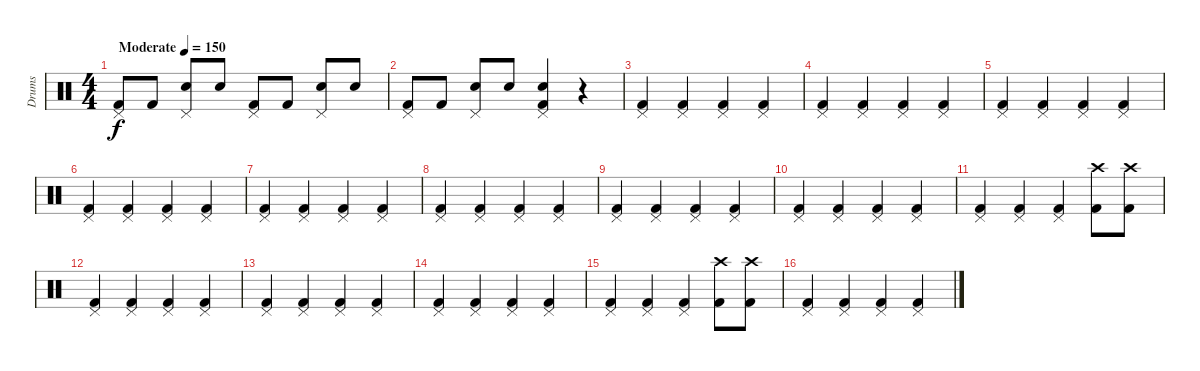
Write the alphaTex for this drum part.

\track ("Drums" "Drums") {instrument percussion}
\staff {score}
\articulation defaults
\ts (4 4)
\tempo (150 "Moderate")
\clef neutral
\ks c
("Pedal Hi-Hat (hit)" "Kick (hit) 2").8{dy f} "Kick (hit) 2".8 ("Pedal Hi-Hat (hit)" "Snare (hit) 2").8 "Snare (hit) 2".8 ("Pedal Hi-Hat (hit)" "Kick (hit) 2").8 "Kick (hit) 2".8 ("Pedal Hi-Hat (hit)" "Snare (hit) 2").8 "Snare (hit) 2".8 |
("Pedal Hi-Hat (hit)" "Kick (hit) 2").8 "Kick (hit) 2".8 ("Pedal Hi-Hat (hit)" "Snare (hit) 2").8 "Snare (hit) 2".8 ("Pedal Hi-Hat (hit)" "Snare (hit) 2" "Kick (hit) 2").4 r.4 |
("Pedal Hi-Hat (hit)" "Kick (hit) 2").4 ("Pedal Hi-Hat (hit)" "Kick (hit) 2").4 ("Pedal Hi-Hat (hit)" "Kick (hit) 2").4 ("Pedal Hi-Hat (hit)" "Kick (hit) 2").4 |
("Pedal Hi-Hat (hit)" "Kick (hit) 2").4 ("Pedal Hi-Hat (hit)" "Kick (hit) 2").4 ("Pedal Hi-Hat (hit)" "Kick (hit) 2").4 ("Pedal Hi-Hat (hit)" "Kick (hit) 2").4 |
("Pedal Hi-Hat (hit)" "Kick (hit) 2").4 ("Pedal Hi-Hat (hit)" "Kick (hit) 2").4 ("Pedal Hi-Hat (hit)" "Kick (hit) 2").4 ("Pedal Hi-Hat (hit)" "Kick (hit) 2").4 |
("Pedal Hi-Hat (hit)" "Kick (hit) 2").4 ("Pedal Hi-Hat (hit)" "Kick (hit) 2").4 ("Pedal Hi-Hat (hit)" "Kick (hit) 2").4 ("Pedal Hi-Hat (hit)" "Kick (hit) 2").4 |
("Pedal Hi-Hat (hit)" "Kick (hit) 2").4 ("Pedal Hi-Hat (hit)" "Kick (hit) 2").4 ("Pedal Hi-Hat (hit)" "Kick (hit) 2").4 ("Pedal Hi-Hat (hit)" "Kick (hit) 2").4 |
("Pedal Hi-Hat (hit)" "Kick (hit) 2").4 ("Pedal Hi-Hat (hit)" "Kick (hit) 2").4 ("Pedal Hi-Hat (hit)" "Kick (hit) 2").4 ("Pedal Hi-Hat (hit)" "Kick (hit) 2").4 |
("Pedal Hi-Hat (hit)" "Kick (hit) 2").4 ("Pedal Hi-Hat (hit)" "Kick (hit) 2").4 ("Pedal Hi-Hat (hit)" "Kick (hit) 2").4 ("Pedal Hi-Hat (hit)" "Kick (hit) 2").4 |
("Pedal Hi-Hat (hit)" "Kick (hit) 2").4 ("Pedal Hi-Hat (hit)" "Kick (hit) 2").4 ("Pedal Hi-Hat (hit)" "Kick (hit) 2").4 ("Pedal Hi-Hat (hit)" "Kick (hit) 2").4 |
("Pedal Hi-Hat (hit)" "Kick (hit) 2").4 ("Pedal Hi-Hat (hit)" "Kick (hit) 2").4 ("Pedal Hi-Hat (hit)" "Kick (hit) 2").4 ("Crash high (hit)" "Kick (hit) 2").8 ("Crash high (hit)" "Kick (hit) 2").8 |
("Pedal Hi-Hat (hit)" "Kick (hit) 2").4 ("Pedal Hi-Hat (hit)" "Kick (hit) 2").4 ("Pedal Hi-Hat (hit)" "Kick (hit) 2").4 ("Pedal Hi-Hat (hit)" "Kick (hit) 2").4 |
("Pedal Hi-Hat (hit)" "Kick (hit) 2").4 ("Pedal Hi-Hat (hit)" "Kick (hit) 2").4 ("Pedal Hi-Hat (hit)" "Kick (hit) 2").4 ("Pedal Hi-Hat (hit)" "Kick (hit) 2").4 |
("Pedal Hi-Hat (hit)" "Kick (hit) 2").4 ("Pedal Hi-Hat (hit)" "Kick (hit) 2").4 ("Pedal Hi-Hat (hit)" "Kick (hit) 2").4 ("Pedal Hi-Hat (hit)" "Kick (hit) 2").4 |
("Pedal Hi-Hat (hit)" "Kick (hit) 2").4 ("Pedal Hi-Hat (hit)" "Kick (hit) 2").4 ("Pedal Hi-Hat (hit)" "Kick (hit) 2").4 ("Crash high (hit)" "Kick (hit) 2").8 ("Crash high (hit)" "Kick (hit) 2").8 |
("Pedal Hi-Hat (hit)" "Kick (hit) 2").4 ("Pedal Hi-Hat (hit)" "Kick (hit) 2").4 ("Pedal Hi-Hat (hit)" "Kick (hit) 2").4 ("Pedal Hi-Hat (hit)" "Kick (hit) 2").4
